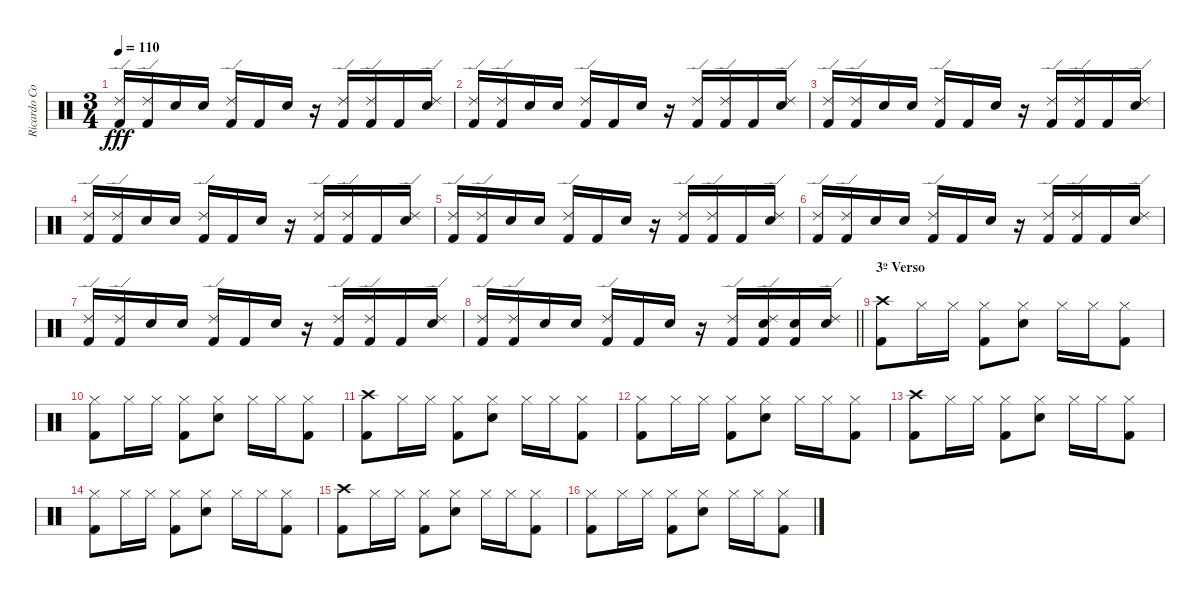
\track ("Ricardo Confessori" "Ricardo Co") {instrument percussion}
\staff {score}
\articulation defaults
\ts (3 4)
\tempo 110
\clef neutral
\ks c
("Ride (edge) 2" "Kick (hit) 2").16{dy fff} ("Ride (edge) 2" "Kick (hit) 2").16 "Electric Snare (hit)".16 "Electric Snare (hit)".16 ("Ride (edge) 2" "Kick (hit) 2").16 "Kick (hit) 2".16 "Electric Snare (hit)".16 r.16 ("Ride (edge) 2" "Kick (hit) 2").16 ("Ride (edge) 2" "Kick (hit) 2").16 "Kick (hit) 2".16 ("Ride (edge) 2" "Electric Snare (hit)").16 |
("Ride (edge) 2" "Kick (hit) 2").16 ("Ride (edge) 2" "Kick (hit) 2").16 "Electric Snare (hit)".16 "Electric Snare (hit)".16 ("Ride (edge) 2" "Kick (hit) 2").16 "Kick (hit) 2".16 "Electric Snare (hit)".16 r.16 ("Ride (edge) 2" "Kick (hit) 2").16 ("Ride (edge) 2" "Kick (hit) 2").16 "Kick (hit) 2".16 ("Ride (edge) 2" "Electric Snare (hit)").16 |
("Ride (edge) 2" "Kick (hit) 2").16 ("Ride (edge) 2" "Kick (hit) 2").16 "Electric Snare (hit)".16 "Electric Snare (hit)".16 ("Ride (edge) 2" "Kick (hit) 2").16 "Kick (hit) 2".16 "Electric Snare (hit)".16 r.16 ("Ride (edge) 2" "Kick (hit) 2").16 ("Ride (edge) 2" "Kick (hit) 2").16 "Kick (hit) 2".16 ("Ride (edge) 2" "Electric Snare (hit)").16 |
("Ride (edge) 2" "Kick (hit) 2").16 ("Ride (edge) 2" "Kick (hit) 2").16 "Electric Snare (hit)".16 "Electric Snare (hit)".16 ("Ride (edge) 2" "Kick (hit) 2").16 "Kick (hit) 2".16 "Electric Snare (hit)".16 r.16 ("Ride (edge) 2" "Kick (hit) 2").16 ("Ride (edge) 2" "Kick (hit) 2").16 "Kick (hit) 2".16 ("Ride (edge) 2" "Electric Snare (hit)").16 |
("Ride (edge) 2" "Kick (hit) 2").16 ("Ride (edge) 2" "Kick (hit) 2").16 "Electric Snare (hit)".16 "Electric Snare (hit)".16 ("Ride (edge) 2" "Kick (hit) 2").16 "Kick (hit) 2".16 "Electric Snare (hit)".16 r.16 ("Ride (edge) 2" "Kick (hit) 2").16 ("Ride (edge) 2" "Kick (hit) 2").16 "Kick (hit) 2".16 ("Ride (edge) 2" "Electric Snare (hit)").16 |
("Ride (edge) 2" "Kick (hit) 2").16 ("Ride (edge) 2" "Kick (hit) 2").16 "Electric Snare (hit)".16 "Electric Snare (hit)".16 ("Ride (edge) 2" "Kick (hit) 2").16 "Kick (hit) 2".16 "Electric Snare (hit)".16 r.16 ("Ride (edge) 2" "Kick (hit) 2").16 ("Ride (edge) 2" "Kick (hit) 2").16 "Kick (hit) 2".16 ("Ride (edge) 2" "Electric Snare (hit)").16 |
("Ride (edge) 2" "Kick (hit) 2").16 ("Ride (edge) 2" "Kick (hit) 2").16 "Electric Snare (hit)".16 "Electric Snare (hit)".16 ("Ride (edge) 2" "Kick (hit) 2").16 "Kick (hit) 2".16 "Electric Snare (hit)".16 r.16 ("Ride (edge) 2" "Kick (hit) 2").16 ("Ride (edge) 2" "Kick (hit) 2").16 "Kick (hit) 2".16 ("Ride (edge) 2" "Electric Snare (hit)").16 |
\barLineRight lightlight
("Ride (edge) 2" "Kick (hit) 2").16 ("Ride (edge) 2" "Kick (hit) 2").16 "Electric Snare (hit)".16 "Electric Snare (hit)".16 ("Ride (edge) 2" "Kick (hit) 2").16 "Kick (hit) 2".16 "Electric Snare (hit)".16 r.16 ("Ride (edge) 2" "Kick (hit) 2").16 ("Ride (edge) 2" "Electric Snare (hit)" "Kick (hit) 2").16 ("Electric Snare (hit)" "Kick (hit) 2").16 ("Ride (edge) 2" "Electric Snare (hit)").16 |
\section ("" "3º Verso")
("Crash high (hit)" "Kick (hit) 2").8 "Hi-Hat (closed)".16 "Hi-Hat (closed)".16 ("Hi-Hat (closed)" "Kick (hit) 2").8 ("Hi-Hat (closed)" "Electric Snare (hit)").8 "Hi-Hat (closed)".16 "Hi-Hat (closed)".16 ("Hi-Hat (closed)" "Kick (hit) 2").8 |
("Hi-Hat (closed)" "Kick (hit) 2").8 "Hi-Hat (closed)".16 "Hi-Hat (closed)".16 ("Hi-Hat (closed)" "Kick (hit) 2").8 ("Hi-Hat (closed)" "Electric Snare (hit)").8 "Hi-Hat (closed)".16 "Hi-Hat (closed)".16 ("Hi-Hat (closed)" "Kick (hit) 2").8 |
("Crash high (hit)" "Kick (hit) 2").8 "Hi-Hat (closed)".16 "Hi-Hat (closed)".16 ("Hi-Hat (closed)" "Kick (hit) 2").8 ("Hi-Hat (closed)" "Electric Snare (hit)").8 "Hi-Hat (closed)".16 "Hi-Hat (closed)".16 ("Hi-Hat (closed)" "Kick (hit) 2").8 |
("Hi-Hat (closed)" "Kick (hit) 2").8 "Hi-Hat (closed)".16 "Hi-Hat (closed)".16 ("Hi-Hat (closed)" "Kick (hit) 2").8 ("Hi-Hat (closed)" "Electric Snare (hit)").8 "Hi-Hat (closed)".16 "Hi-Hat (closed)".16 ("Hi-Hat (closed)" "Kick (hit) 2").8 |
("Crash high (hit)" "Kick (hit) 2").8 "Hi-Hat (closed)".16 "Hi-Hat (closed)".16 ("Hi-Hat (closed)" "Kick (hit) 2").8 ("Hi-Hat (closed)" "Electric Snare (hit)").8 "Hi-Hat (closed)".16 "Hi-Hat (closed)".16 ("Hi-Hat (closed)" "Kick (hit) 2").8 |
("Hi-Hat (closed)" "Kick (hit) 2").8 "Hi-Hat (closed)".16 "Hi-Hat (closed)".16 ("Hi-Hat (closed)" "Kick (hit) 2").8 ("Hi-Hat (closed)" "Electric Snare (hit)").8 "Hi-Hat (closed)".16 "Hi-Hat (closed)".16 ("Hi-Hat (closed)" "Kick (hit) 2").8 |
("Crash high (hit)" "Kick (hit) 2").8 "Hi-Hat (closed)".16 "Hi-Hat (closed)".16 ("Hi-Hat (closed)" "Kick (hit) 2").8 ("Hi-Hat (closed)" "Electric Snare (hit)").8 "Hi-Hat (closed)".16 "Hi-Hat (closed)".16 ("Hi-Hat (closed)" "Kick (hit) 2").8 |
("Hi-Hat (closed)" "Kick (hit) 2").8 "Hi-Hat (closed)".16 "Hi-Hat (closed)".16 ("Hi-Hat (closed)" "Kick (hit) 2").8 ("Hi-Hat (closed)" "Electric Snare (hit)").8 "Hi-Hat (closed)".16 "Hi-Hat (closed)".16 ("Hi-Hat (closed)" "Kick (hit) 2").8
